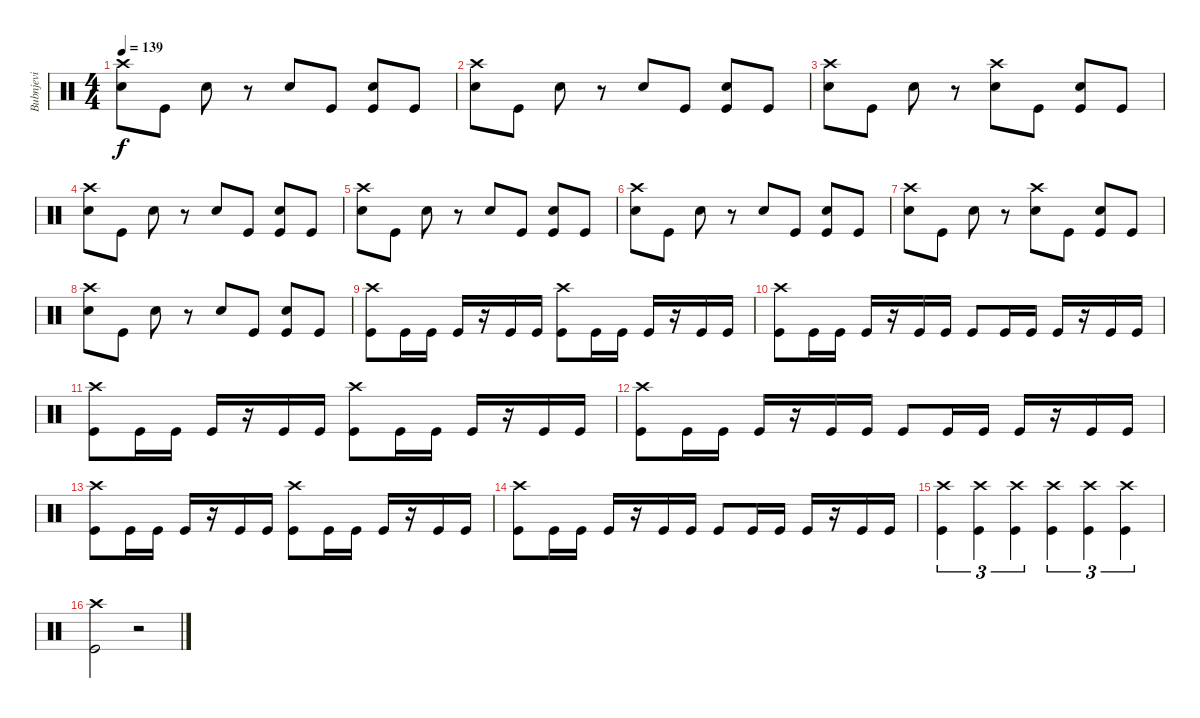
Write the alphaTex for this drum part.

\track ("Bubnjevi" "Bubnjevi") {instrument percussion}
\staff {score}
\articulation defaults
\ts (4 4)
\tempo 139
\clef neutral
\ks c
("Crash high (hit)" "Snare (hit) 2").8{dy f} "Kick (hit)".8 "Snare (hit) 2".8 r.8 "Snare (hit) 2".8 "Kick (hit)".8 ("Snare (hit) 2" "Kick (hit)").8 "Kick (hit)".8 |
("Crash high (hit)" "Snare (hit) 2").8 "Kick (hit)".8 "Snare (hit) 2".8 r.8 "Snare (hit) 2".8 "Kick (hit)".8 ("Snare (hit) 2" "Kick (hit)").8 "Kick (hit)".8 |
("Crash high (hit)" "Snare (hit) 2").8 "Kick (hit)".8 "Snare (hit) 2".8 r.8 ("Crash high (hit)" "Snare (hit) 2").8 "Kick (hit)".8 ("Snare (hit) 2" "Kick (hit)").8 "Kick (hit)".8 |
("Crash high (hit)" "Snare (hit) 2").8 "Kick (hit)".8 "Snare (hit) 2".8 r.8 "Snare (hit) 2".8 "Kick (hit)".8 ("Snare (hit) 2" "Kick (hit)").8 "Kick (hit)".8 |
("Crash high (hit)" "Snare (hit) 2").8 "Kick (hit)".8 "Snare (hit) 2".8 r.8 "Snare (hit) 2".8 "Kick (hit)".8 ("Snare (hit) 2" "Kick (hit)").8 "Kick (hit)".8 |
("Crash high (hit)" "Snare (hit) 2").8 "Kick (hit)".8 "Snare (hit) 2".8 r.8 "Snare (hit) 2".8 "Kick (hit)".8 ("Snare (hit) 2" "Kick (hit)").8 "Kick (hit)".8 |
("Crash high (hit)" "Snare (hit) 2").8 "Kick (hit)".8 "Snare (hit) 2".8 r.8 ("Crash high (hit)" "Snare (hit) 2").8 "Kick (hit)".8 ("Snare (hit) 2" "Kick (hit)").8 "Kick (hit)".8 |
("Crash high (hit)" "Snare (hit) 2").8 "Kick (hit)".8 "Snare (hit) 2".8 r.8 "Snare (hit) 2".8 "Kick (hit)".8 ("Snare (hit) 2" "Kick (hit)").8 "Kick (hit)".8 |
("Crash high (hit)" "Kick (hit)").8 "Kick (hit)".16 "Kick (hit)".16 "Kick (hit)".16 r.16 "Kick (hit)".16 "Kick (hit)".16 ("Crash high (hit)" "Kick (hit)").8 "Kick (hit)".16 "Kick (hit)".16 "Kick (hit)".16 r.16 "Kick (hit)".16 "Kick (hit)".16 |
("Crash high (hit)" "Kick (hit)").8 "Kick (hit)".16 "Kick (hit)".16 "Kick (hit)".16 r.16 "Kick (hit)".16 "Kick (hit)".16 "Kick (hit)".8 "Kick (hit)".16 "Kick (hit)".16 "Kick (hit)".16 r.16 "Kick (hit)".16 "Kick (hit)".16 |
("Crash high (hit)" "Kick (hit)").8 "Kick (hit)".16 "Kick (hit)".16 "Kick (hit)".16 r.16 "Kick (hit)".16 "Kick (hit)".16 ("Crash high (hit)" "Kick (hit)").8 "Kick (hit)".16 "Kick (hit)".16 "Kick (hit)".16 r.16 "Kick (hit)".16 "Kick (hit)".16 |
("Crash high (hit)" "Kick (hit)").8 "Kick (hit)".16 "Kick (hit)".16 "Kick (hit)".16 r.16 "Kick (hit)".16 "Kick (hit)".16 "Kick (hit)".8 "Kick (hit)".16 "Kick (hit)".16 "Kick (hit)".16 r.16 "Kick (hit)".16 "Kick (hit)".16 |
("Crash high (hit)" "Kick (hit)").8 "Kick (hit)".16 "Kick (hit)".16 "Kick (hit)".16 r.16 "Kick (hit)".16 "Kick (hit)".16 ("Crash high (hit)" "Kick (hit)").8 "Kick (hit)".16 "Kick (hit)".16 "Kick (hit)".16 r.16 "Kick (hit)".16 "Kick (hit)".16 |
("Crash high (hit)" "Kick (hit)").8 "Kick (hit)".16 "Kick (hit)".16 "Kick (hit)".16 r.16 "Kick (hit)".16 "Kick (hit)".16 "Kick (hit)".8 "Kick (hit)".16 "Kick (hit)".16 "Kick (hit)".16 r.16 "Kick (hit)".16 "Kick (hit)".16 |
("Crash high (hit)" "Kick (hit)").4{tu (3 2)} ("Crash high (hit)" "Kick (hit)").4{tu (3 2)} ("Crash high (hit)" "Kick (hit)").4{tu (3 2)} ("Crash high (hit)" "Kick (hit)").4{tu (3 2)} ("Crash high (hit)" "Kick (hit)").4{tu (3 2)} ("Crash high (hit)" "Kick (hit)").4{tu (3 2)} |
("Crash high (hit)" "Kick (hit)").2 r.2
